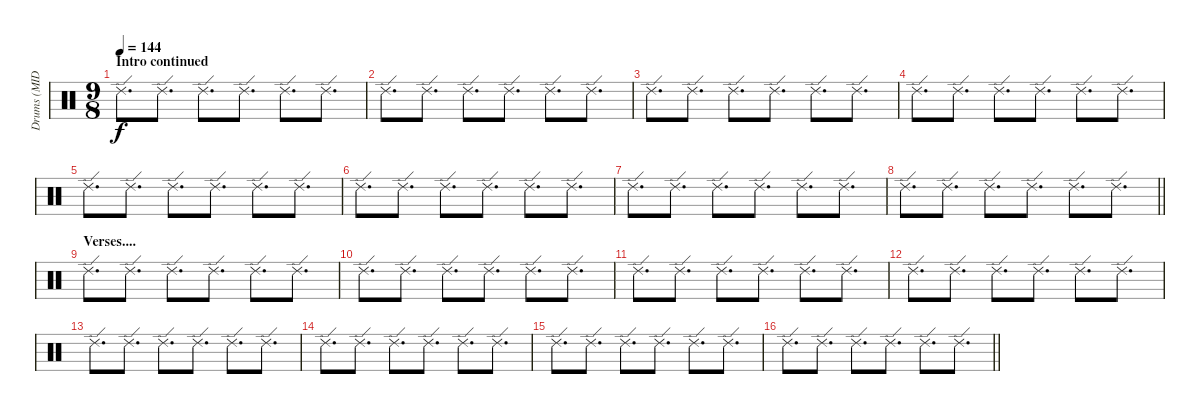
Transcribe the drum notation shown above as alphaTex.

\track ("Drums (MIDI!)" "Drums (MID") {instrument percussion}
\staff {score}
\articulation defaults
\ts (9 8)
\section ("" "Intro continued")
\tempo 144
\clef neutral
\ks c "Ride (edge) 2".8{d dy f} "Ride (edge) 2".8{d} "Ride (edge) 2".8{d} "Ride (edge) 2".8{d} "Ride (edge) 2".8{d} "Ride (edge) 2".8{d}
|
"Ride (edge) 2".8{d} "Ride (edge) 2".8{d} "Ride (edge) 2".8{d} "Ride (edge) 2".8{d} "Ride (edge) 2".8{d} "Ride (edge) 2".8{d} |
"Ride (edge) 2".8{d} "Ride (edge) 2".8{d} "Ride (edge) 2".8{d} "Ride (edge) 2".8{d} "Ride (edge) 2".8{d} "Ride (edge) 2".8{d} |
"Ride (edge) 2".8{d} "Ride (edge) 2".8{d} "Ride (edge) 2".8{d} "Ride (edge) 2".8{d} "Ride (edge) 2".8{d} "Ride (edge) 2".8{d} |
"Ride (edge) 2".8{d} "Ride (edge) 2".8{d} "Ride (edge) 2".8{d} "Ride (edge) 2".8{d} "Ride (edge) 2".8{d} "Ride (edge) 2".8{d} |
"Ride (edge) 2".8{d} "Ride (edge) 2".8{d} "Ride (edge) 2".8{d} "Ride (edge) 2".8{d} "Ride (edge) 2".8{d} "Ride (edge) 2".8{d} |
"Ride (edge) 2".8{d} "Ride (edge) 2".8{d} "Ride (edge) 2".8{d} "Ride (edge) 2".8{d} "Ride (edge) 2".8{d} "Ride (edge) 2".8{d} |
\barLineRight lightlight "Ride (edge) 2".8{d} "Ride (edge) 2".8{d} "Ride (edge) 2".8{d} "Ride (edge) 2".8{d} "Ride (edge) 2".8{d} "Ride (edge) 2".8{d}
|
\section ("" "Verses....")
"Ride (edge) 2".8{d} "Ride (edge) 2".8{d} "Ride (edge) 2".8{d} "Ride (edge) 2".8{d} "Ride (edge) 2".8{d} "Ride (edge) 2".8{d} |
"Ride (edge) 2".8{d} "Ride (edge) 2".8{d} "Ride (edge) 2".8{d} "Ride (edge) 2".8{d} "Ride (edge) 2".8{d} "Ride (edge) 2".8{d} |
"Ride (edge) 2".8{d} "Ride (edge) 2".8{d} "Ride (edge) 2".8{d} "Ride (edge) 2".8{d} "Ride (edge) 2".8{d} "Ride (edge) 2".8{d} |
"Ride (edge) 2".8{d} "Ride (edge) 2".8{d} "Ride (edge) 2".8{d} "Ride (edge) 2".8{d} "Ride (edge) 2".8{d} "Ride (edge) 2".8{d} |
"Ride (edge) 2".8{d} "Ride (edge) 2".8{d} "Ride (edge) 2".8{d} "Ride (edge) 2".8{d} "Ride (edge) 2".8{d} "Ride (edge) 2".8{d} |
"Ride (edge) 2".8{d} "Ride (edge) 2".8{d} "Ride (edge) 2".8{d} "Ride (edge) 2".8{d} "Ride (edge) 2".8{d} "Ride (edge) 2".8{d} |
"Ride (edge) 2".8{d} "Ride (edge) 2".8{d} "Ride (edge) 2".8{d} "Ride (edge) 2".8{d} "Ride (edge) 2".8{d} "Ride (edge) 2".8{d} |
\barLineRight lightlight "Ride (edge) 2".8{d} "Ride (edge) 2".8{d} "Ride (edge) 2".8{d} "Ride (edge) 2".8{d} "Ride (edge) 2".8{d} "Ride (edge) 2".8{d}
